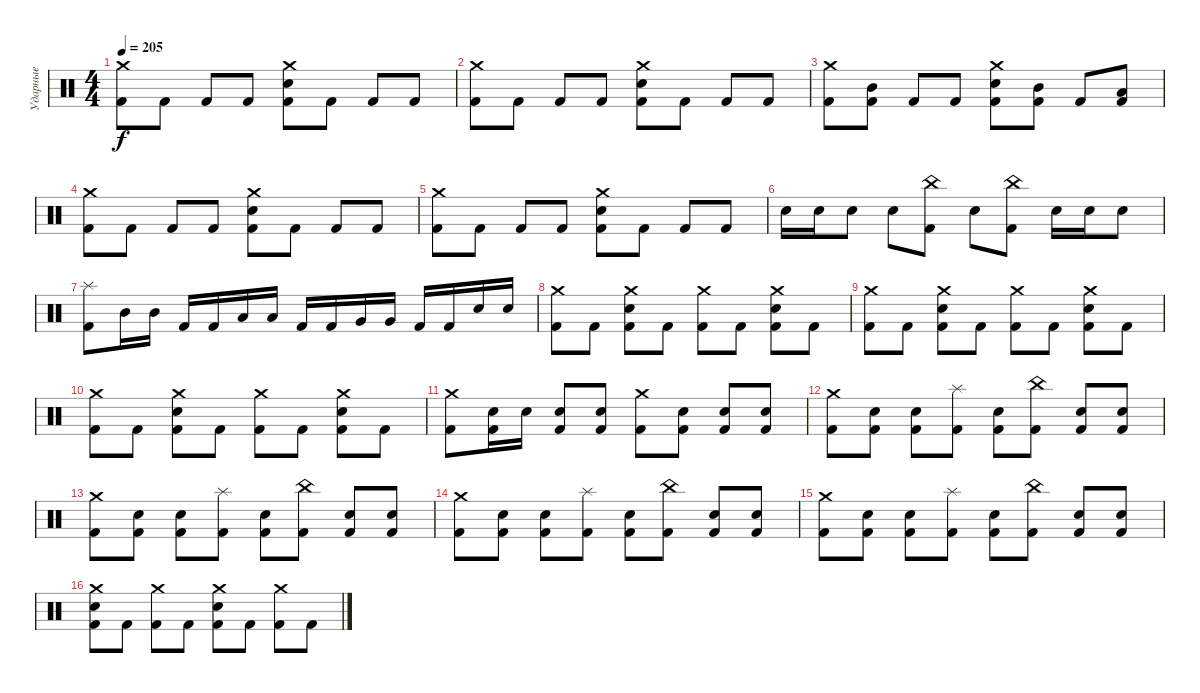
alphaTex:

\track ("Ударные" "Ударные") {instrument percussion}
\staff {score}
\articulation defaults
\ts (4 4)
\tempo 205
\clef neutral
\ks c
("Crash medium (hit)" "Kick (hit) 2").8{dy f} "Kick (hit) 2".8 "Kick (hit) 2".8 "Kick (hit) 2".8 ("Crash medium (hit)" "Electric Snare (hit)" "Kick (hit) 2").8 "Kick (hit) 2".8 "Kick (hit) 2".8 "Kick (hit) 2".8 |
("Crash medium (hit)" "Kick (hit) 2").8 "Kick (hit) 2".8 "Kick (hit) 2".8 "Kick (hit) 2".8 ("Crash medium (hit)" "Electric Snare (hit)" "Kick (hit) 2").8 "Kick (hit) 2".8 "Kick (hit) 2".8 "Kick (hit) 2".8 |
("Crash medium (hit)" "Kick (hit) 2").8 ("Mid Tom (hit)" "Kick (hit) 2").8 "Kick (hit) 2".8 "Kick (hit) 2".8 ("Crash medium (hit)" "Electric Snare (hit)" "Kick (hit) 2").8 ("Mid Tom (hit)" "Kick (hit) 2").8 "Kick (hit) 2".8 ("Low Tom (hit)" "Kick (hit) 2").8 |
("Crash medium (hit)" "Kick (hit) 2").8 "Kick (hit) 2".8 "Kick (hit) 2".8 "Kick (hit) 2".8 ("Crash medium (hit)" "Electric Snare (hit)" "Kick (hit) 2").8 "Kick (hit) 2".8 "Kick (hit) 2".8 "Kick (hit) 2".8 |
("Crash medium (hit)" "Kick (hit) 2").8 "Kick (hit) 2".8 "Kick (hit) 2".8 "Kick (hit) 2".8 ("Crash medium (hit)" "Electric Snare (hit)" "Kick (hit) 2").8 "Kick (hit) 2".8 "Kick (hit) 2".8 "Kick (hit) 2".8 |
"Electric Snare (hit)".16 "Electric Snare (hit)".16 "Electric Snare (hit)".8 "Electric Snare (hit)".8 ("China (hit)" "Kick (hit) 2").8 "Electric Snare (hit)".8 ("China (hit)" "Kick (hit) 2").8 "Electric Snare (hit)".16 "Electric Snare (hit)".16 "Electric Snare (hit)".8 |
("Splash (hit)" "Kick (hit) 2").8 "Mid Tom (hit)".16 "Mid Tom (hit)".16 "Kick (hit) 2".16 "Kick (hit) 2".16 "Low Tom (hit)".16 "Low Tom (hit)".16 "Kick (hit) 2".16 "Kick (hit) 2".16 "Very Low Tom (hit)".16 "Very Low Tom (hit)".16 "Kick (hit) 2".16 "Kick (hit) 2".16 "Electric Snare (hit)".16 "Electric Snare (hit)".16 |
("Crash medium (hit)" "Kick (hit) 2").8 "Kick (hit) 2".8 ("Crash medium (hit)" "Electric Snare (hit)" "Kick (hit) 2").8 "Kick (hit) 2".8 ("Crash medium (hit)" "Kick (hit) 2").8 "Kick (hit) 2".8 ("Crash medium (hit)" "Electric Snare (hit)" "Kick (hit) 2").8 "Kick (hit) 2".8 |
("Crash medium (hit)" "Kick (hit) 2").8 "Kick (hit) 2".8 ("Crash medium (hit)" "Electric Snare (hit)" "Kick (hit) 2").8 "Kick (hit) 2".8 ("Crash medium (hit)" "Kick (hit) 2").8 "Kick (hit) 2".8 ("Crash medium (hit)" "Electric Snare (hit)" "Kick (hit) 2").8 "Kick (hit) 2".8 |
("Crash medium (hit)" "Kick (hit) 2").8 "Kick (hit) 2".8 ("Crash medium (hit)" "Electric Snare (hit)" "Kick (hit) 2").8 "Kick (hit) 2".8 ("Crash medium (hit)" "Kick (hit) 2").8 "Kick (hit) 2".8 ("Crash medium (hit)" "Electric Snare (hit)" "Kick (hit) 2").8 "Kick (hit) 2".8 |
("Crash medium (hit)" "Kick (hit) 2").8 ("Electric Snare (hit)" "Kick (hit) 2").16 "Electric Snare (hit)".16 ("Electric Snare (hit)" "Kick (hit) 2").8 ("Electric Snare (hit)" "Kick (hit) 2").8 ("Crash medium (hit)" "Kick (hit) 2").8 ("Electric Snare (hit)" "Kick (hit) 2").8 ("Electric Snare (hit)" "Kick (hit) 2").8 ("Electric Snare (hit)" "Kick (hit) 2").8 |
("Crash medium (hit)" "Kick (hit) 2").8 ("Electric Snare (hit)" "Kick (hit) 2").8 ("Electric Snare (hit)" "Kick (hit) 2").8 ("Splash (hit)" "Kick (hit) 2").8 ("Electric Snare (hit)" "Kick (hit) 2").8 ("China (hit)" "Kick (hit) 2").8 ("Electric Snare (hit)" "Kick (hit) 2").8 ("Electric Snare (hit)" "Kick (hit) 2").8 |
("Crash medium (hit)" "Kick (hit) 2").8 ("Electric Snare (hit)" "Kick (hit) 2").8 ("Electric Snare (hit)" "Kick (hit) 2").8 ("Splash (hit)" "Kick (hit) 2").8 ("Electric Snare (hit)" "Kick (hit) 2").8 ("China (hit)" "Kick (hit) 2").8 ("Electric Snare (hit)" "Kick (hit) 2").8 ("Electric Snare (hit)" "Kick (hit) 2").8 |
("Crash medium (hit)" "Kick (hit) 2").8 ("Electric Snare (hit)" "Kick (hit) 2").8 ("Electric Snare (hit)" "Kick (hit) 2").8 ("Splash (hit)" "Kick (hit) 2").8 ("Electric Snare (hit)" "Kick (hit) 2").8 ("China (hit)" "Kick (hit) 2").8 ("Electric Snare (hit)" "Kick (hit) 2").8 ("Electric Snare (hit)" "Kick (hit) 2").8 |
("Crash medium (hit)" "Kick (hit) 2").8 ("Electric Snare (hit)" "Kick (hit) 2").8 ("Electric Snare (hit)" "Kick (hit) 2").8 ("Splash (hit)" "Kick (hit) 2").8 ("Electric Snare (hit)" "Kick (hit) 2").8 ("China (hit)" "Kick (hit) 2").8 ("Electric Snare (hit)" "Kick (hit) 2").8 ("Electric Snare (hit)" "Kick (hit) 2").8 |
("Crash medium (hit)" "Electric Snare (hit)" "Kick (hit) 2").8 "Kick (hit) 2".8 ("Crash medium (hit)" "Kick (hit) 2").8 "Kick (hit) 2".8 ("Crash medium (hit)" "Electric Snare (hit)" "Kick (hit) 2").8 "Kick (hit) 2".8 ("Crash medium (hit)" "Kick (hit) 2").8 "Kick (hit) 2".8
